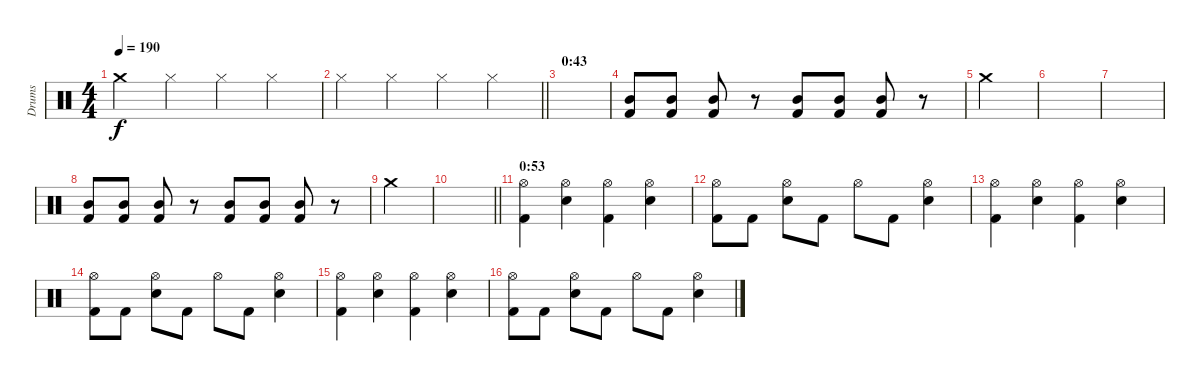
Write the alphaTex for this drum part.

\track ("Drums" "Drums") {instrument percussion}
\staff {score}
\articulation defaults
\ts (4 4)
\tempo 190
\clef neutral
\ks c "Crash medium (hit)".4{dy f} "Hi-Hat (closed)".4 "Hi-Hat (closed)".4 "Hi-Hat (closed)".4
|
\barLineRight lightlight "Hi-Hat (closed)".4 "Hi-Hat (closed)".4 "Hi-Hat (closed)".4 "Hi-Hat (closed)".4
|
\section ("" "0:43")
|
("Mid Tom (hit)" "Kick (hit) 2").8 ("Mid Tom (hit)" "Kick (hit) 2").8 ("Mid Tom (hit)" "Kick (hit) 2").8 r.8 ("Mid Tom (hit)" "Kick (hit) 2").8 ("Mid Tom (hit)" "Kick (hit) 2").8 ("Mid Tom (hit)" "Kick (hit) 2").8 r.8 |
"Crash medium (hit)".4 |
|
|
("Mid Tom (hit)" "Kick (hit) 2").8 ("Mid Tom (hit)" "Kick (hit) 2").8 ("Mid Tom (hit)" "Kick (hit) 2").8 r.8 ("Mid Tom (hit)" "Kick (hit) 2").8 ("Mid Tom (hit)" "Kick (hit) 2").8 ("Mid Tom (hit)" "Kick (hit) 2").8 r.8 |
"Crash medium (hit)".4 |
\barLineRight lightlight
|
\section ("" "0:53")
("Hi-Hat (open)" "Kick (hit) 2").4 ("Hi-Hat (open)" "Electric Snare (hit)").4 ("Hi-Hat (open)" "Kick (hit) 2").4 ("Hi-Hat (open)" "Electric Snare (hit)").4 |
("Hi-Hat (open)" "Kick (hit) 2").8 "Kick (hit) 2".8 ("Hi-Hat (open)" "Electric Snare (hit)").8 "Kick (hit) 2".8 "Hi-Hat (open)".8 "Kick (hit) 2".8 ("Hi-Hat (open)" "Electric Snare (hit)").4 |
("Hi-Hat (open)" "Kick (hit) 2").4 ("Hi-Hat (open)" "Electric Snare (hit)").4 ("Hi-Hat (open)" "Kick (hit) 2").4 ("Hi-Hat (open)" "Electric Snare (hit)").4 |
("Hi-Hat (open)" "Kick (hit) 2").8 "Kick (hit) 2".8 ("Hi-Hat (open)" "Electric Snare (hit)").8 "Kick (hit) 2".8 "Hi-Hat (open)".8 "Kick (hit) 2".8 ("Hi-Hat (open)" "Electric Snare (hit)").4 |
("Hi-Hat (open)" "Kick (hit) 2").4 ("Hi-Hat (open)" "Electric Snare (hit)").4 ("Hi-Hat (open)" "Kick (hit) 2").4 ("Hi-Hat (open)" "Electric Snare (hit)").4 |
("Hi-Hat (open)" "Kick (hit) 2").8 "Kick (hit) 2".8 ("Hi-Hat (open)" "Electric Snare (hit)").8 "Kick (hit) 2".8 "Hi-Hat (open)".8 "Kick (hit) 2".8 ("Hi-Hat (open)" "Electric Snare (hit)").4
